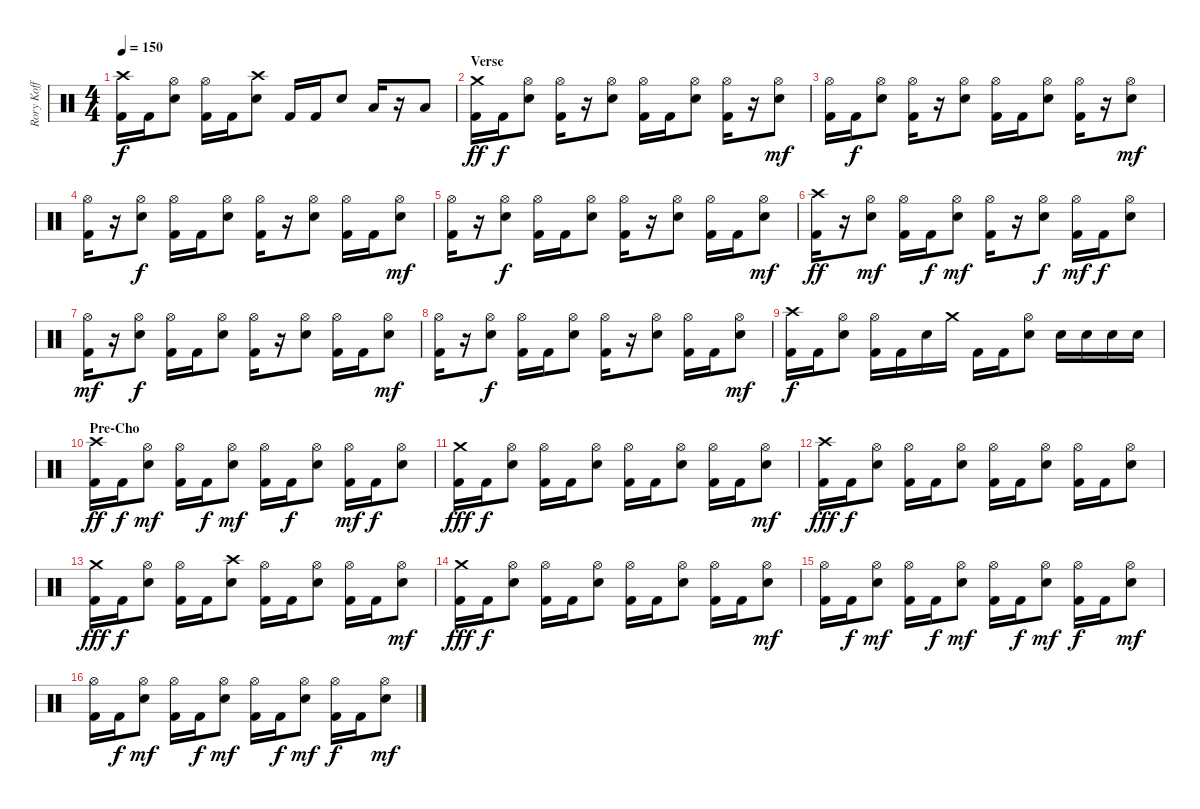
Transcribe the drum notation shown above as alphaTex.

\track ("Rory Koff" "Rory Koff") {instrument percussion}
\staff {score}
\articulation defaults
\ts (4 4)
\tempo 150
\clef neutral
\ks c
("Crash high (hit)" "Kick (hit) 2").16{dy f} "Kick (hit) 2".16 ("Hi-Hat (open)" "Electric Snare (hit)").8 ("Hi-Hat (open)" "Kick (hit) 2").16 "Kick (hit) 2".16 ("Crash high (hit)" "Electric Snare (hit)").8 "Kick (hit) 2".16 "Kick (hit) 2".16 "Electric Snare (hit)".8 "Low Tom (hit)".16 r.16 "Low Floor Tom (hit)".8 |
\section ("" "Verse")
("Crash medium (hit)" "Kick (hit) 2").16{dy ff} "Kick (hit) 2".16{dy f} ("Hi-Hat (open)" "Electric Snare (hit)").8 ("Hi-Hat (open)" "Kick (hit) 2").16 r.16 ("Hi-Hat (open)" "Electric Snare (hit)").8 ("Hi-Hat (open)" "Kick (hit) 2").16 "Kick (hit) 2".16 ("Hi-Hat (open)" "Electric Snare (hit)").8 ("Hi-Hat (open)" "Kick (hit) 2").16 r.16 ("Hi-Hat (open)" "Electric Snare (hit)").8{dy mf} |
("Hi-Hat (open)" "Kick (hit) 2").16 "Kick (hit) 2".16{dy f} ("Hi-Hat (open)" "Electric Snare (hit)").8 ("Hi-Hat (open)" "Kick (hit) 2").16 r.16 ("Hi-Hat (open)" "Electric Snare (hit)").8 ("Hi-Hat (open)" "Kick (hit) 2").16 "Kick (hit) 2".16 ("Hi-Hat (open)" "Electric Snare (hit)").8 ("Hi-Hat (open)" "Kick (hit) 2").16 r.16 ("Hi-Hat (open)" "Electric Snare (hit)").8{dy mf} |
("Hi-Hat (open)" "Kick (hit) 2").16 r.16 ("Hi-Hat (open)" "Electric Snare (hit)").8{dy f} ("Hi-Hat (open)" "Kick (hit) 2").16 "Kick (hit) 2".16 ("Hi-Hat (open)" "Electric Snare (hit)").8 ("Hi-Hat (open)" "Kick (hit) 2").16 r.16 ("Hi-Hat (open)" "Electric Snare (hit)").8 ("Hi-Hat (open)" "Kick (hit) 2").16 "Kick (hit) 2".16 ("Hi-Hat (open)" "Electric Snare (hit)").8{dy mf} |
("Hi-Hat (open)" "Kick (hit) 2").16 r.16 ("Hi-Hat (open)" "Electric Snare (hit)").8{dy f} ("Hi-Hat (open)" "Kick (hit) 2").16 "Kick (hit) 2".16 ("Hi-Hat (open)" "Electric Snare (hit)").8 ("Hi-Hat (open)" "Kick (hit) 2").16 r.16 ("Hi-Hat (open)" "Electric Snare (hit)").8 ("Hi-Hat (open)" "Kick (hit) 2").16 "Kick (hit) 2".16 ("Hi-Hat (open)" "Electric Snare (hit)").8{dy mf} |
("Crash high (hit)" "Kick (hit) 2").16{dy ff} r.16 ("Hi-Hat (open)" "Electric Snare (hit)").8{dy mf} ("Hi-Hat (open)" "Kick (hit) 2").16 "Kick (hit) 2".16{dy f} ("Hi-Hat (open)" "Electric Snare (hit)").8{dy mf} ("Hi-Hat (open)" "Kick (hit) 2").16 r.16 ("Hi-Hat (open)" "Electric Snare (hit)").8{dy f} ("Hi-Hat (open)" "Kick (hit) 2").16{dy mf} "Kick (hit) 2".16{dy f} ("Hi-Hat (open)" "Electric Snare (hit)").8 |
("Hi-Hat (open)" "Kick (hit) 2").16{dy mf} r.16 ("Hi-Hat (open)" "Electric Snare (hit)").8{dy f} ("Hi-Hat (open)" "Kick (hit) 2").16 "Kick (hit) 2".16 ("Hi-Hat (open)" "Electric Snare (hit)").8 ("Hi-Hat (open)" "Kick (hit) 2").16 r.16 ("Hi-Hat (open)" "Electric Snare (hit)").8 ("Hi-Hat (open)" "Kick (hit) 2").16 "Kick (hit) 2".16 ("Hi-Hat (open)" "Electric Snare (hit)").8{dy mf} |
("Hi-Hat (open)" "Kick (hit) 2").16 r.16 ("Hi-Hat (open)" "Electric Snare (hit)").8{dy f} ("Hi-Hat (open)" "Kick (hit) 2").16 "Kick (hit) 2".16 ("Hi-Hat (open)" "Electric Snare (hit)").8 ("Hi-Hat (open)" "Kick (hit) 2").16 r.16 ("Hi-Hat (open)" "Electric Snare (hit)").8 ("Hi-Hat (open)" "Kick (hit) 2").16 "Kick (hit) 2".16 ("Hi-Hat (open)" "Electric Snare (hit)").8{dy mf} |
("Crash high (hit)" "Kick (hit) 2").16{dy f} "Kick (hit) 2".16 ("Hi-Hat (open)" "Electric Snare (hit)").8 ("Hi-Hat (open)" "Kick (hit) 2").16 "Kick (hit) 2".16 "Electric Snare (hit)".16 "Crash medium (hit)".16 "Kick (hit) 2".16 "Kick (hit) 2".16 ("Hi-Hat (open)" "Electric Snare (hit)").8 "Electric Snare (hit)".16 "Electric Snare (hit)".16 "Electric Snare (hit)".16 "Electric Snare (hit)".16 |
\section ("" "Pre-Cho")
("Crash high (hit)" "Kick (hit) 2").16{dy ff} "Kick (hit) 2".16{dy f} ("Hi-Hat (open)" "Electric Snare (hit)").8{dy mf} ("Hi-Hat (open)" "Kick (hit) 2").16 "Kick (hit) 2".16{dy f} ("Hi-Hat (open)" "Electric Snare (hit)").8{dy mf} ("Hi-Hat (open)" "Kick (hit) 2").16 "Kick (hit) 2".16{dy f} ("Hi-Hat (open)" "Electric Snare (hit)").8 ("Hi-Hat (open)" "Kick (hit) 2").16{dy mf} "Kick (hit) 2".16{dy f} ("Hi-Hat (open)" "Electric Snare (hit)").8 |
("Crash medium (hit)" "Kick (hit) 2").16{dy fff} "Kick (hit) 2".16{dy f} ("Hi-Hat (open)" "Electric Snare (hit)").8 ("Hi-Hat (open)" "Kick (hit) 2").16 "Kick (hit) 2".16 ("Hi-Hat (open)" "Electric Snare (hit)").8 ("Hi-Hat (open)" "Kick (hit) 2").16 "Kick (hit) 2".16 ("Hi-Hat (open)" "Electric Snare (hit)").8 ("Hi-Hat (open)" "Kick (hit) 2").16 "Kick (hit) 2".16 ("Hi-Hat (open)" "Electric Snare (hit)").8{dy mf} |
("Crash high (hit)" "Kick (hit) 2").16{dy fff} "Kick (hit) 2".16{dy f} ("Hi-Hat (open)" "Electric Snare (hit)").8 ("Hi-Hat (open)" "Kick (hit) 2").16 "Kick (hit) 2".16 ("Hi-Hat (open)" "Electric Snare (hit)").8 ("Hi-Hat (open)" "Kick (hit) 2").16 "Kick (hit) 2".16 ("Hi-Hat (open)" "Electric Snare (hit)").8 ("Hi-Hat (open)" "Kick (hit) 2").16 "Kick (hit) 2".16 ("Hi-Hat (open)" "Electric Snare (hit)").8 |
("Crash medium (hit)" "Kick (hit) 2").16{dy fff} "Kick (hit) 2".16{dy f} ("Hi-Hat (open)" "Electric Snare (hit)").8 ("Hi-Hat (open)" "Kick (hit) 2").16 "Kick (hit) 2".16 ("Crash high (hit)" "Electric Snare (hit)").8 ("Hi-Hat (open)" "Kick (hit) 2").16 "Kick (hit) 2".16 ("Hi-Hat (open)" "Electric Snare (hit)").8 ("Hi-Hat (open)" "Kick (hit) 2").16 "Kick (hit) 2".16 ("Hi-Hat (open)" "Electric Snare (hit)").8{dy mf} |
("Crash medium (hit)" "Kick (hit) 2").16{dy fff} "Kick (hit) 2".16{dy f} ("Hi-Hat (open)" "Electric Snare (hit)").8 ("Hi-Hat (open)" "Kick (hit) 2").16 "Kick (hit) 2".16 ("Hi-Hat (open)" "Electric Snare (hit)").8 ("Hi-Hat (open)" "Kick (hit) 2").16 "Kick (hit) 2".16 ("Hi-Hat (open)" "Electric Snare (hit)").8 ("Hi-Hat (open)" "Kick (hit) 2").16 "Kick (hit) 2".16 ("Hi-Hat (open)" "Electric Snare (hit)").8{dy mf} |
("Hi-Hat (open)" "Kick (hit) 2").16 "Kick (hit) 2".16{dy f} ("Hi-Hat (open)" "Electric Snare (hit)").8{dy mf} ("Hi-Hat (open)" "Kick (hit) 2").16 "Kick (hit) 2".16{dy f} ("Hi-Hat (open)" "Electric Snare (hit)").8{dy mf} ("Hi-Hat (open)" "Kick (hit) 2").16 "Kick (hit) 2".16{dy f} ("Hi-Hat (open)" "Electric Snare (hit)").8{dy mf} ("Hi-Hat (open)" "Kick (hit) 2").16{dy f} "Kick (hit) 2".16 ("Hi-Hat (open)" "Electric Snare (hit)").8{dy mf} |
("Hi-Hat (open)" "Kick (hit) 2").16 "Kick (hit) 2".16{dy f} ("Hi-Hat (open)" "Electric Snare (hit)").8{dy mf} ("Hi-Hat (open)" "Kick (hit) 2").16 "Kick (hit) 2".16{dy f} ("Hi-Hat (open)" "Electric Snare (hit)").8{dy mf} ("Hi-Hat (open)" "Kick (hit) 2").16 "Kick (hit) 2".16{dy f} ("Hi-Hat (open)" "Electric Snare (hit)").8{dy mf} ("Hi-Hat (open)" "Kick (hit) 2").16{dy f} "Kick (hit) 2".16 ("Hi-Hat (open)" "Electric Snare (hit)").8{dy mf}
